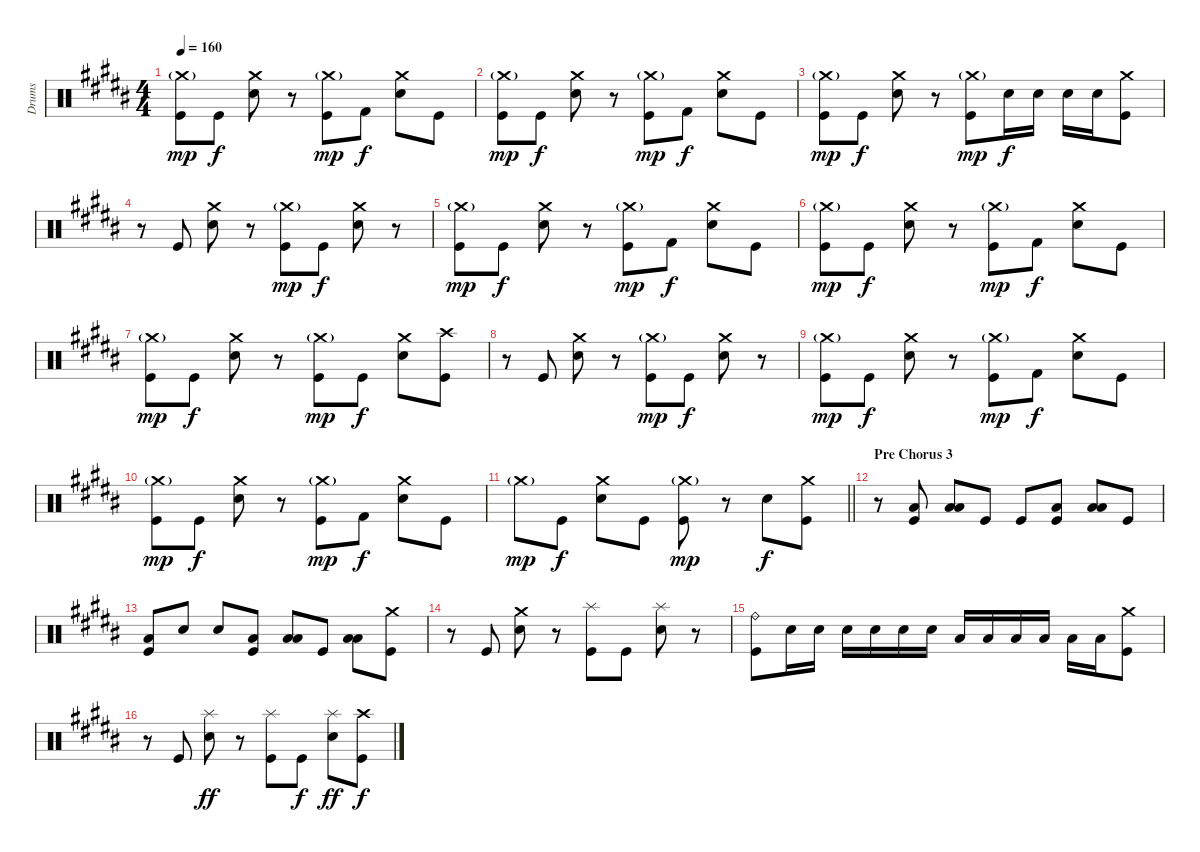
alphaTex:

\track ("Drums" "Drums") {instrument percussion}
\staff {score}
\articulation defaults
\ts (4 4)
\tempo 160
\clef neutral
\ks b
("Crash medium (hit)"{g} "Kick (hit)").8{dy mp} "Kick (hit)".8{dy f} ("Crash medium (hit)" "Snare (hit) 2").8 r.8 ("Crash medium (hit)"{g} "Kick (hit)").8{dy mp} "Kick (hit) 2".8{dy f} ("Crash medium (hit)" "Snare (hit) 2").8 "Kick (hit)".8 |
("Crash medium (hit)"{g} "Kick (hit)").8{dy mp} "Kick (hit)".8{dy f} ("Crash medium (hit)" "Snare (hit) 2").8 r.8 ("Crash medium (hit)"{g} "Kick (hit)").8{dy mp} "Kick (hit) 2".8{dy f} ("Crash medium (hit)" "Snare (hit) 2").8 "Kick (hit)".8 |
("Crash medium (hit)"{g} "Kick (hit)").8{dy mp} "Kick (hit)".8{dy f} ("Crash medium (hit)" "Snare (hit) 2").8 r.8 ("Crash medium (hit)"{g} "Kick (hit)").8{dy mp} "Snare (hit) 2".16{dy f} "Snare (hit) 2".16 "Snare (hit) 2".16 "Snare (hit) 2".16 ("Crash medium (hit)" "Kick (hit)").8 |
r.8 "Kick (hit)".8 ("Crash medium (hit)" "Snare (hit) 2").8 r.8 ("Crash medium (hit)"{g} "Kick (hit)").8{dy mp} "Kick (hit)".8{dy f} ("Crash medium (hit)" "Snare (hit) 2").8 r.8 |
("Crash medium (hit)"{g} "Kick (hit)").8{dy mp} "Kick (hit)".8{dy f} ("Crash medium (hit)" "Snare (hit) 2").8 r.8 ("Crash medium (hit)"{g} "Kick (hit)").8{dy mp} "Kick (hit) 2".8{dy f} ("Crash medium (hit)" "Snare (hit) 2").8 "Kick (hit)".8 |
("Crash medium (hit)"{g} "Kick (hit)").8{dy mp} "Kick (hit)".8{dy f} ("Crash medium (hit)" "Snare (hit) 2").8 r.8 ("Crash medium (hit)"{g} "Kick (hit)").8{dy mp} "Kick (hit) 2".8{dy f} ("Crash medium (hit)" "Snare (hit) 2").8 "Kick (hit)".8 |
("Crash medium (hit)"{g} "Kick (hit)").8{dy mp} "Kick (hit)".8{dy f} ("Crash medium (hit)" "Snare (hit) 2").8 r.8 ("Crash medium (hit)"{g} "Kick (hit)").8{dy mp} "Kick (hit)".8{dy f} ("Crash medium (hit)" "Snare (hit) 2").8 ("Crash high (hit)" "Kick (hit)").8 |
r.8 "Kick (hit)".8 ("Crash medium (hit)" "Snare (hit) 2").8 r.8 ("Crash medium (hit)"{g} "Kick (hit)").8{dy mp} "Kick (hit)".8{dy f} ("Crash medium (hit)" "Snare (hit) 2").8 r.8 |
("Crash medium (hit)"{g} "Kick (hit)").8{dy mp} "Kick (hit)".8{dy f} ("Crash medium (hit)" "Snare (hit) 2").8 r.8 ("Crash medium (hit)"{g} "Kick (hit)").8{dy mp} "Kick (hit) 2".8{dy f} ("Crash medium (hit)" "Snare (hit) 2").8 "Kick (hit)".8 |
("Crash medium (hit)"{g} "Kick (hit)").8{dy mp} "Kick (hit)".8{dy f} ("Crash medium (hit)" "Snare (hit) 2").8 r.8 ("Crash medium (hit)"{g} "Kick (hit)").8{dy mp} "Kick (hit) 2".8{dy f} ("Crash medium (hit)" "Snare (hit) 2").8 "Kick (hit)".8 |
\barLineRight lightlight "Crash medium (hit)"{g}.8{dy mp} "Kick (hit)".8{dy f}
("Crash medium (hit)" "Snare (hit) 2").8 "Kick (hit)".8 ("Crash medium (hit)"{g} "Kick (hit)").8{dy mp} r.8 "Snare (hit) 2".8{dy f} ("Crash medium (hit)" "Kick (hit)").8 |
\section ("" "Pre Chorus 3")
r.8 ("Low Floor Tom (hit)" "Kick (hit)").8 ("Low Tom (hit)" "Low Floor Tom (hit)").8 "Kick (hit)".8 "Kick (hit)".8 ("Low Floor Tom (hit)" "Kick (hit)").8 ("Low Tom (hit)" "Low Floor Tom (hit)").8 "Kick (hit)".8 |
("Low Tom (hit)" "Kick (hit)").8 "Snare (hit) 2".8 "Snare (hit) 2".8 ("Low Tom (hit)" "Kick (hit)").8 ("Low Tom (hit)" "Low Floor Tom (hit)").8 "Kick (hit)".8 ("Low Tom (hit)" "Low Floor Tom (hit)").8 ("Crash medium (hit)" "Kick (hit)").8 |
r.8 "Kick (hit)".8 ("Crash medium (hit)" "Snare (hit) 2").8 r.8 ("Splash (hit)" "Kick (hit)").8 "Kick (hit)".8 ("Splash (hit)" "Snare (hit) 2").8 r.8 |
("Ride (bell)" "Kick (hit)").8 "Snare (hit) 2".16 "Snare (hit) 2".16 "Snare (hit) 2".16 "Snare (hit) 2".16 "Snare (hit) 2".16 "Snare (hit) 2".16 "Low Tom (hit)".16 "Low Tom (hit)".16 "Low Tom (hit)".16 "Low Tom (hit)".16 "Low Floor Tom (hit)".16 "Low Floor Tom (hit)".16 ("Crash medium (hit)" "Kick (hit)").8 |
r.8 "Kick (hit)".8 ("Splash (hit)" "Snare (hit) 2").8{dy ff} r.8 ("Splash (hit)" "Kick (hit)").8 "Kick (hit)".8{dy f} ("Splash (hit)" "Snare (hit) 2").8{dy ff} ("Crash high (hit)" "Kick (hit)").8{dy f}
